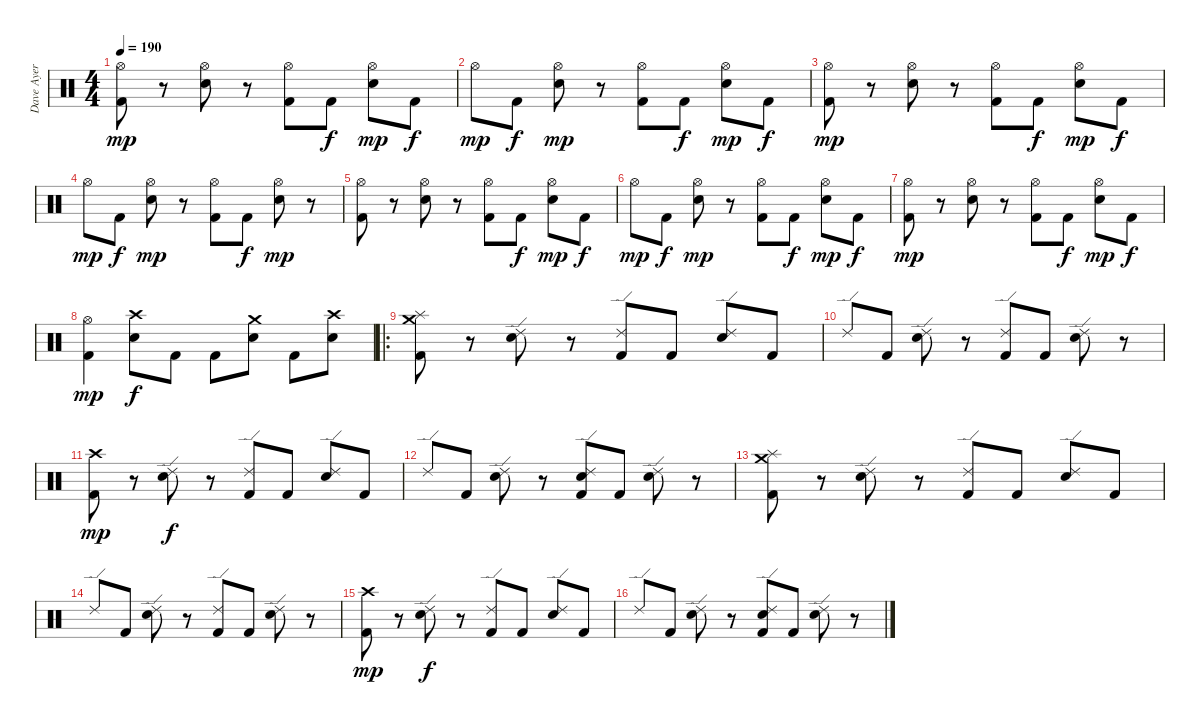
\track ("Dave Ayer" "Dave Ayer") {instrument percussion}
\staff {score}
\articulation defaults
\ts (4 4)
\tempo 190
\clef neutral
\ks c
("Hi-Hat (open)" "Kick (hit) 2").8{dy mp} r.8 ("Hi-Hat (open)" "Snare (hit) 2").8 r.8 ("Hi-Hat (open)" "Kick (hit) 2").8 "Kick (hit) 2".8{dy f} ("Hi-Hat (open)" "Snare (hit) 2").8{dy mp} "Kick (hit) 2".8{dy f} |
"Hi-Hat (open)".8{dy mp} "Kick (hit) 2".8{dy f} ("Hi-Hat (open)" "Snare (hit) 2").8{dy mp} r.8 ("Hi-Hat (open)" "Kick (hit) 2").8 "Kick (hit) 2".8{dy f} ("Hi-Hat (open)" "Snare (hit) 2").8{dy mp} "Kick (hit) 2".8{dy f} |
("Hi-Hat (open)" "Kick (hit) 2").8{dy mp} r.8 ("Hi-Hat (open)" "Snare (hit) 2").8 r.8 ("Hi-Hat (open)" "Kick (hit) 2").8 "Kick (hit) 2".8{dy f} ("Hi-Hat (open)" "Snare (hit) 2").8{dy mp} "Kick (hit) 2".8{dy f} |
"Hi-Hat (open)".8{dy mp} "Kick (hit) 2".8{dy f} ("Hi-Hat (open)" "Snare (hit) 2").8{dy mp} r.8 ("Hi-Hat (open)" "Kick (hit) 2").8 "Kick (hit) 2".8{dy f} ("Hi-Hat (open)" "Snare (hit) 2").8{dy mp} r.8 |
("Hi-Hat (open)" "Kick (hit) 2").8 r.8 ("Hi-Hat (open)" "Snare (hit) 2").8 r.8 ("Hi-Hat (open)" "Kick (hit) 2").8 "Kick (hit) 2".8{dy f} ("Hi-Hat (open)" "Snare (hit) 2").8{dy mp} "Kick (hit) 2".8{dy f} |
"Hi-Hat (open)".8{dy mp} "Kick (hit) 2".8{dy f} ("Hi-Hat (open)" "Snare (hit) 2").8{dy mp} r.8 ("Hi-Hat (open)" "Kick (hit) 2").8 "Kick (hit) 2".8{dy f} ("Hi-Hat (open)" "Snare (hit) 2").8{dy mp} "Kick (hit) 2".8{dy f} |
("Hi-Hat (open)" "Kick (hit) 2").8{dy mp} r.8 ("Hi-Hat (open)" "Snare (hit) 2").8 r.8 ("Hi-Hat (open)" "Kick (hit) 2").8 "Kick (hit) 2".8{dy f} ("Hi-Hat (open)" "Snare (hit) 2").8{dy mp} "Kick (hit) 2".8{dy f} |
("Hi-Hat (open)" "Kick (hit) 2").4{dy mp} ("Crash high (hit)" "Snare (hit) 2").8{dy f} "Kick (hit) 2".8 "Kick (hit) 2".8 ("Crash medium (hit)" "Snare (hit) 2").8 "Kick (hit) 2".8 ("Crash high (hit)" "Snare (hit) 2").8 |
\ro
("Crash medium (hit)" "Splash (hit)" "Kick (hit) 2").8 r.8 ("Ride (edge) 2" "Snare (hit) 2").8 r.8 ("Ride (edge) 2" "Kick (hit) 2").8 "Kick (hit) 2".8 ("Ride (edge) 2" "Snare (hit) 2").8 "Kick (hit) 2".8 |
"Ride (edge) 2".8 "Kick (hit) 2".8 ("Ride (edge) 2" "Snare (hit) 2").8 r.8 ("Ride (edge) 2" "Kick (hit) 2").8 "Kick (hit) 2".8 ("Ride (edge) 2" "Snare (hit) 2").8 r.8 |
("Crash high (hit)" "Kick (hit) 2").8{dy mp} r.8 ("Ride (edge) 2" "Snare (hit) 2").8{dy f} r.8 ("Ride (edge) 2" "Kick (hit) 2").8 "Kick (hit) 2".8 ("Ride (edge) 2" "Snare (hit) 2").8 "Kick (hit) 2".8 |
"Ride (edge) 2".8 "Kick (hit) 2".8 ("Ride (edge) 2" "Snare (hit) 2").8 r.8 ("Ride (edge) 2" "Snare (hit) 2" "Kick (hit) 2").8 "Kick (hit) 2".8 ("Ride (edge) 2" "Snare (hit) 2").8 r.8 |
("Crash medium (hit)" "Splash (hit)" "Kick (hit) 2").8 r.8 ("Ride (edge) 2" "Snare (hit) 2").8 r.8 ("Ride (edge) 2" "Kick (hit) 2").8 "Kick (hit) 2".8 ("Ride (edge) 2" "Snare (hit) 2").8 "Kick (hit) 2".8 |
"Ride (edge) 2".8 "Kick (hit) 2".8 ("Ride (edge) 2" "Snare (hit) 2").8 r.8 ("Ride (edge) 2" "Kick (hit) 2").8 "Kick (hit) 2".8 ("Ride (edge) 2" "Snare (hit) 2").8 r.8 |
("Crash high (hit)" "Kick (hit) 2").8{dy mp} r.8 ("Ride (edge) 2" "Snare (hit) 2").8{dy f} r.8 ("Ride (edge) 2" "Kick (hit) 2").8 "Kick (hit) 2".8 ("Ride (edge) 2" "Snare (hit) 2").8 "Kick (hit) 2".8 |
"Ride (edge) 2".8 "Kick (hit) 2".8 ("Ride (edge) 2" "Snare (hit) 2").8 r.8 ("Ride (edge) 2" "Snare (hit) 2" "Kick (hit) 2").8 "Kick (hit) 2".8 ("Ride (edge) 2" "Snare (hit) 2").8 r.8
